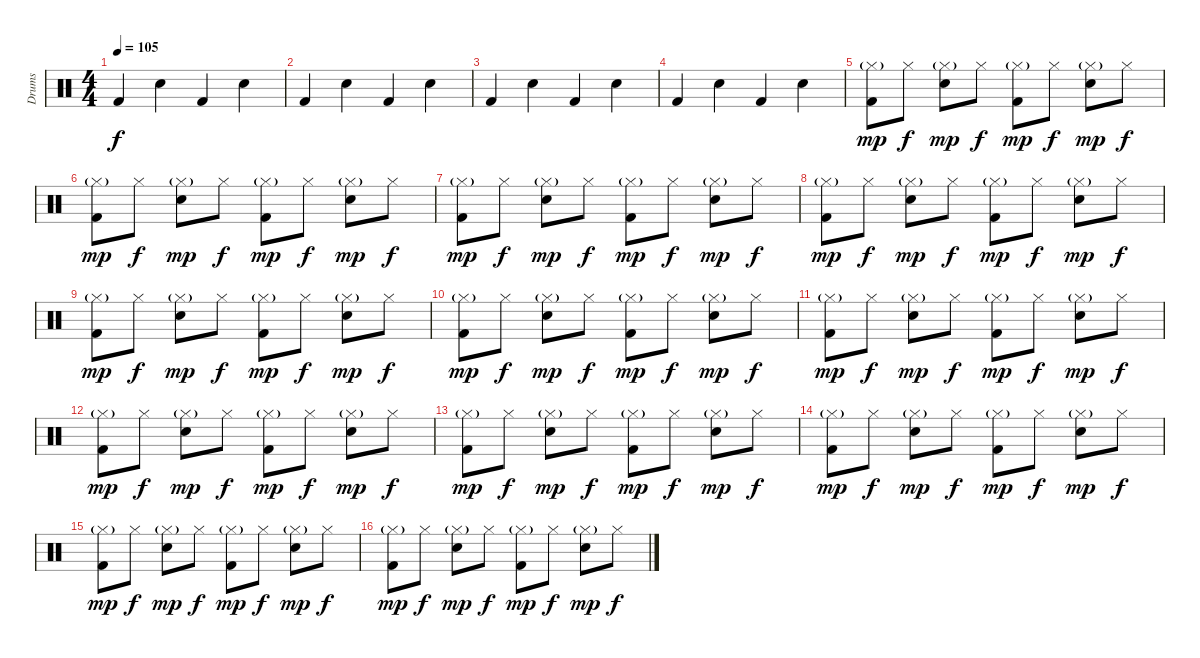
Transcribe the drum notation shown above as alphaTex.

\track ("Drums" "Drums") {instrument percussion}
\staff {score}
\articulation defaults
\ts (4 4)
\tempo 105
\clef neutral
\ks c "Kick (hit) 2".4{dy f} "Snare (hit) 2".4 "Kick (hit) 2".4 "Snare (hit) 2".4
|
"Kick (hit) 2".4 "Snare (hit) 2".4 "Kick (hit) 2".4 "Snare (hit) 2".4 |
"Kick (hit) 2".4 "Snare (hit) 2".4 "Kick (hit) 2".4 "Snare (hit) 2".4 |
"Kick (hit) 2".4 "Snare (hit) 2".4 "Kick (hit) 2".4 "Snare (hit) 2".4 |
("Hi-Hat (closed)"{g} "Kick (hit) 2").8{dy mp} "Hi-Hat (closed)".8{dy f} ("Hi-Hat (closed)"{g} "Snare (hit) 2").8{dy mp} "Hi-Hat (closed)".8{dy f} ("Hi-Hat (closed)"{g} "Kick (hit) 2").8{dy mp} "Hi-Hat (closed)".8{dy f} ("Hi-Hat (closed)"{g} "Snare (hit) 2").8{dy mp} "Hi-Hat (closed)".8{dy f} |
("Hi-Hat (closed)"{g} "Kick (hit) 2").8{dy mp} "Hi-Hat (closed)".8{dy f} ("Hi-Hat (closed)"{g} "Snare (hit) 2").8{dy mp} "Hi-Hat (closed)".8{dy f} ("Hi-Hat (closed)"{g} "Kick (hit) 2").8{dy mp} "Hi-Hat (closed)".8{dy f} ("Hi-Hat (closed)"{g} "Snare (hit) 2").8{dy mp} "Hi-Hat (closed)".8{dy f} |
("Hi-Hat (closed)"{g} "Kick (hit) 2").8{dy mp} "Hi-Hat (closed)".8{dy f} ("Hi-Hat (closed)"{g} "Snare (hit) 2").8{dy mp} "Hi-Hat (closed)".8{dy f} ("Hi-Hat (closed)"{g} "Kick (hit) 2").8{dy mp} "Hi-Hat (closed)".8{dy f} ("Hi-Hat (closed)"{g} "Snare (hit) 2").8{dy mp} "Hi-Hat (closed)".8{dy f} |
("Hi-Hat (closed)"{g} "Kick (hit) 2").8{dy mp} "Hi-Hat (closed)".8{dy f} ("Hi-Hat (closed)"{g} "Snare (hit) 2").8{dy mp} "Hi-Hat (closed)".8{dy f} ("Hi-Hat (closed)"{g} "Kick (hit) 2").8{dy mp} "Hi-Hat (closed)".8{dy f} ("Hi-Hat (closed)"{g} "Snare (hit) 2").8{dy mp} "Hi-Hat (closed)".8{dy f} |
("Hi-Hat (closed)"{g} "Kick (hit) 2").8{dy mp} "Hi-Hat (closed)".8{dy f} ("Hi-Hat (closed)"{g} "Snare (hit) 2").8{dy mp} "Hi-Hat (closed)".8{dy f} ("Hi-Hat (closed)"{g} "Kick (hit) 2").8{dy mp} "Hi-Hat (closed)".8{dy f} ("Hi-Hat (closed)"{g} "Snare (hit) 2").8{dy mp} "Hi-Hat (closed)".8{dy f} |
("Hi-Hat (closed)"{g} "Kick (hit) 2").8{dy mp} "Hi-Hat (closed)".8{dy f} ("Hi-Hat (closed)"{g} "Snare (hit) 2").8{dy mp} "Hi-Hat (closed)".8{dy f} ("Hi-Hat (closed)"{g} "Kick (hit) 2").8{dy mp} "Hi-Hat (closed)".8{dy f} ("Hi-Hat (closed)"{g} "Snare (hit) 2").8{dy mp} "Hi-Hat (closed)".8{dy f} |
("Hi-Hat (closed)"{g} "Kick (hit) 2").8{dy mp} "Hi-Hat (closed)".8{dy f} ("Hi-Hat (closed)"{g} "Snare (hit) 2").8{dy mp} "Hi-Hat (closed)".8{dy f} ("Hi-Hat (closed)"{g} "Kick (hit) 2").8{dy mp} "Hi-Hat (closed)".8{dy f} ("Hi-Hat (closed)"{g} "Snare (hit) 2").8{dy mp} "Hi-Hat (closed)".8{dy f} |
("Hi-Hat (closed)"{g} "Kick (hit) 2").8{dy mp} "Hi-Hat (closed)".8{dy f} ("Hi-Hat (closed)"{g} "Snare (hit) 2").8{dy mp} "Hi-Hat (closed)".8{dy f} ("Hi-Hat (closed)"{g} "Kick (hit) 2").8{dy mp} "Hi-Hat (closed)".8{dy f} ("Hi-Hat (closed)"{g} "Snare (hit) 2").8{dy mp} "Hi-Hat (closed)".8{dy f} |
("Hi-Hat (closed)"{g} "Kick (hit) 2").8{dy mp} "Hi-Hat (closed)".8{dy f} ("Hi-Hat (closed)"{g} "Snare (hit) 2").8{dy mp} "Hi-Hat (closed)".8{dy f} ("Hi-Hat (closed)"{g} "Kick (hit) 2").8{dy mp} "Hi-Hat (closed)".8{dy f} ("Hi-Hat (closed)"{g} "Snare (hit) 2").8{dy mp} "Hi-Hat (closed)".8{dy f} |
("Hi-Hat (closed)"{g} "Kick (hit) 2").8{dy mp} "Hi-Hat (closed)".8{dy f} ("Hi-Hat (closed)"{g} "Snare (hit) 2").8{dy mp} "Hi-Hat (closed)".8{dy f} ("Hi-Hat (closed)"{g} "Kick (hit) 2").8{dy mp} "Hi-Hat (closed)".8{dy f} ("Hi-Hat (closed)"{g} "Snare (hit) 2").8{dy mp} "Hi-Hat (closed)".8{dy f} |
("Hi-Hat (closed)"{g} "Kick (hit) 2").8{dy mp} "Hi-Hat (closed)".8{dy f} ("Hi-Hat (closed)"{g} "Snare (hit) 2").8{dy mp} "Hi-Hat (closed)".8{dy f} ("Hi-Hat (closed)"{g} "Kick (hit) 2").8{dy mp} "Hi-Hat (closed)".8{dy f} ("Hi-Hat (closed)"{g} "Snare (hit) 2").8{dy mp} "Hi-Hat (closed)".8{dy f} |
("Hi-Hat (closed)"{g} "Kick (hit) 2").8{dy mp} "Hi-Hat (closed)".8{dy f} ("Hi-Hat (closed)"{g} "Snare (hit) 2").8{dy mp} "Hi-Hat (closed)".8{dy f} ("Hi-Hat (closed)"{g} "Kick (hit) 2").8{dy mp} "Hi-Hat (closed)".8{dy f} ("Hi-Hat (closed)"{g} "Snare (hit) 2").8{dy mp} "Hi-Hat (closed)".8{dy f}
